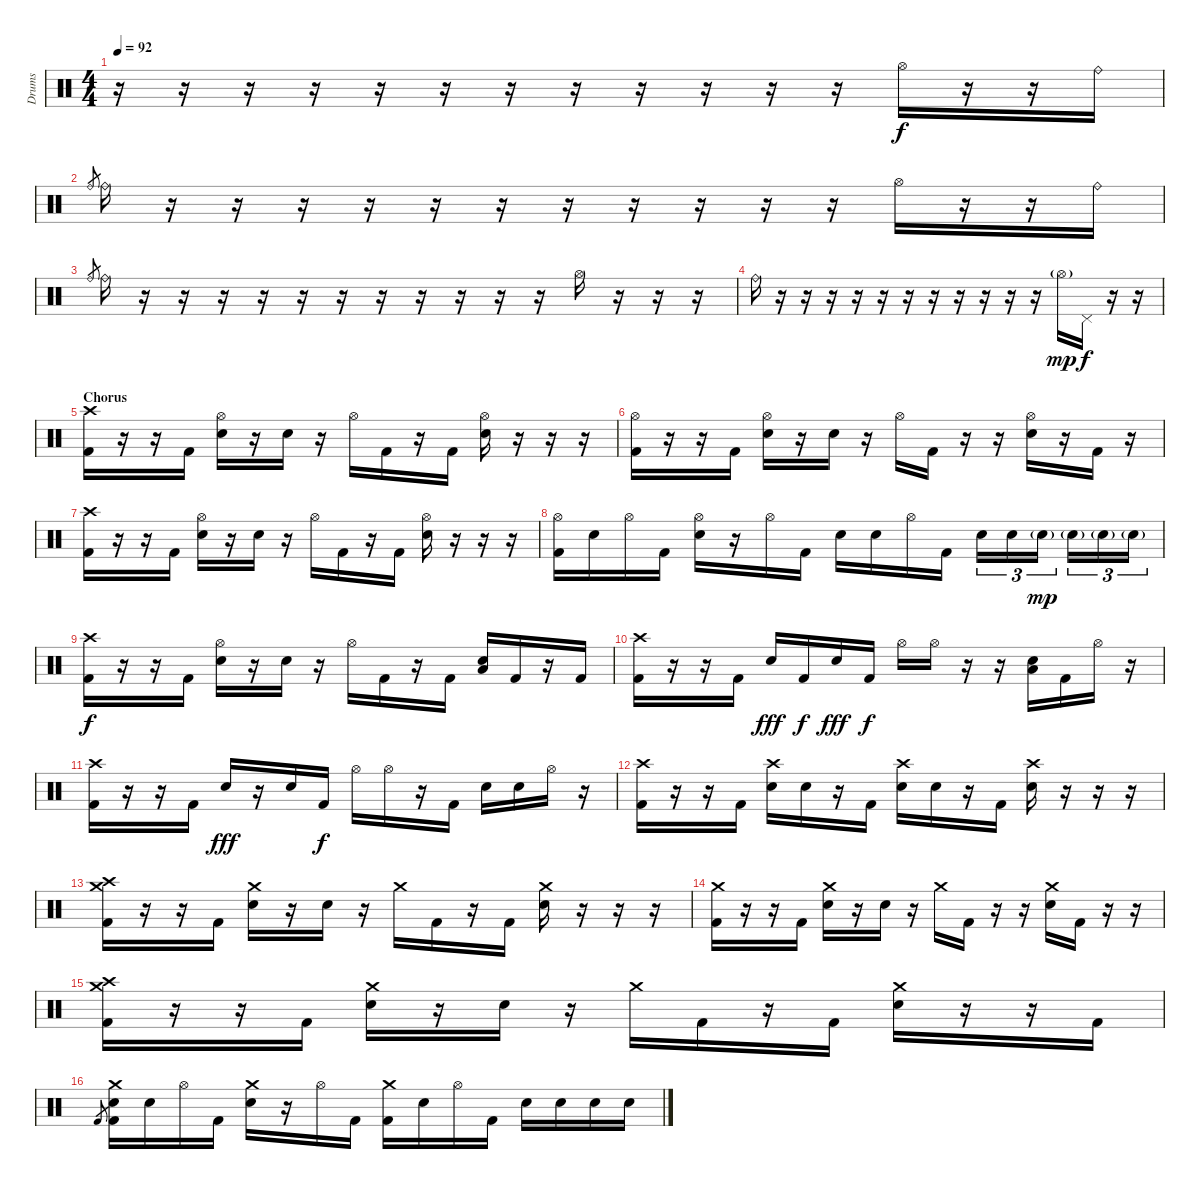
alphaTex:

\track ("Drums" "Drums") {instrument percussion}
\staff {score}
\articulation defaults
\ts (4 4)
\tempo 92
\clef neutral
\ks c
r.16{dy f} r.16 r.16 r.16 r.16 r.16 r.16 r.16 r.16 r.16 r.16 r.16 "Hi-Hat (open)".16 r.16 r.16 "Ride (bell)".16 |
"Ride (bell)".8{gr} "Ride (bell)".16 r.16 r.16 r.16 r.16 r.16 r.16 r.16 r.16 r.16 r.16 r.16 "Hi-Hat (open)".16 r.16 r.16 "Ride (bell)".16 |
"Ride (bell)".8{gr} "Ride (bell)".16 r.16 r.16 r.16 r.16 r.16 r.16 r.16 r.16 r.16 r.16 r.16 "Hi-Hat (open)".16 r.16 r.16 r.16 |
"Ride (bell)".16 r.16 r.16 r.16 r.16 r.16 r.16 r.16 r.16 r.16 r.16 r.16 "Hi-Hat (open)"{g}.16{dy mp} "Pedal Hi-Hat (hit)".16{dy f} r.16 r.16 |
\section ("" "Chorus")
("Kick (hit) 2" "Crash high (hit)").16 r.16 r.16 "Kick (hit) 2".16 ("Hi-Hat (open)" "Electric Snare (hit)").16 r.16 "Electric Snare (hit)".16 r.16 "Hi-Hat (open)".16 "Kick (hit) 2".16 r.16 "Kick (hit) 2".16 ("Hi-Hat (open)" "Electric Snare (hit)").16 r.16 r.16 r.16 |
("Kick (hit) 2" "Hi-Hat (open)").16 r.16 r.16 "Kick (hit) 2".16 ("Hi-Hat (open)" "Electric Snare (hit)").16 r.16 "Electric Snare (hit)".16 r.16 "Hi-Hat (open)".16 "Kick (hit) 2".16 r.16 r.16 ("Hi-Hat (open)" "Electric Snare (hit)").16 r.16 "Kick (hit) 2".16 r.16 |
("Kick (hit) 2" "Crash high (hit)").16 r.16 r.16 "Kick (hit) 2".16 ("Hi-Hat (open)" "Electric Snare (hit)").16 r.16 "Electric Snare (hit)".16 r.16 "Hi-Hat (open)".16 "Kick (hit) 2".16 r.16 "Kick (hit) 2".16 ("Hi-Hat (open)" "Electric Snare (hit)").16 r.16 r.16 r.16 |
("Kick (hit) 2" "Hi-Hat (open)").16 "Electric Snare (hit)".16 "Hi-Hat (open)".16 "Kick (hit) 2".16 ("Hi-Hat (open)" "Electric Snare (hit)").16 r.16 "Hi-Hat (open)".16 "Kick (hit) 2".16 "Electric Snare (hit)".16 "Electric Snare (hit)".16 "Hi-Hat (open)".16 "Kick (hit) 2".16 "Electric Snare (hit)".16{tu (3 2)} "Electric Snare (hit)".16{tu (3 2)} "Electric Snare (hit)"{g}.16{tu (3 2) dy mp} "Electric Snare (hit)"{g}.16{tu (3 2)} "Electric Snare (hit)"{g}.16{tu (3 2)} "Electric Snare (hit)"{g}.16{tu (3 2)} |
("Kick (hit) 2" "Crash high (hit)").16{dy f} r.16 r.16 "Kick (hit) 2".16 ("Hi-Hat (open)" "Electric Snare (hit)").16 r.16 "Electric Snare (hit)".16 r.16 "Hi-Hat (open)".16 "Kick (hit) 2".16 r.16 "Kick (hit) 2".16 ("Electric Snare (hit)" "Low Tom (hit)").16 "Kick (hit) 2".16 r.16 "Kick (hit) 2".16 |
("Kick (hit) 2" "Crash high (hit)").16 r.16 r.16 "Kick (hit) 2".16 "Electric Snare (hit)".16{dy fff} "Kick (hit) 2".16{dy f} "Electric Snare (hit)".16{dy fff} "Kick (hit) 2".16{dy f} "Hi-Hat (open)".16 "Hi-Hat (open)".16 r.16 r.16 ("Electric Snare (hit)" "Low Tom (hit)").16 "Kick (hit) 2".16 "Hi-Hat (open)".16 r.16 |
("Kick (hit) 2" "Crash high (hit)").16 r.16 r.16 "Kick (hit) 2".16 "Electric Snare (hit)".16{dy fff} r.16 "Electric Snare (hit)".16 "Kick (hit) 2".16{dy f} "Hi-Hat (open)".16 "Hi-Hat (open)".16 r.16 "Kick (hit) 2".16 "Electric Snare (hit)".16 "Electric Snare (hit)".16 "Hi-Hat (open)".16 r.16 |
("Kick (hit) 2" "Crash high (hit)").16 r.16 r.16 "Kick (hit) 2".16 ("Crash high (hit)" "Electric Snare (hit)").16 "Electric Snare (hit)".16 r.16 "Kick (hit) 2".16 ("Crash high (hit)" "Electric Snare (hit)").16 "Electric Snare (hit)".16 r.16 "Kick (hit) 2".16 ("Crash high (hit)" "Electric Snare (hit)").16 r.16 r.16 r.16 |
("Kick (hit) 2" "Crash high (hit)" "Crash medium (hit)").16 r.16 r.16 "Kick (hit) 2".16 ("Crash medium (hit)" "Electric Snare (hit)").16 r.16 "Electric Snare (hit)".16 r.16 "Crash medium (hit)".16 "Kick (hit) 2".16 r.16 "Kick (hit) 2".16 ("Crash medium (hit)" "Electric Snare (hit)").16 r.16 r.16 r.16 |
("Kick (hit) 2" "Crash medium (hit)").16 r.16 r.16 "Kick (hit) 2".16 ("Crash medium (hit)" "Electric Snare (hit)").16 r.16 "Electric Snare (hit)".16 r.16 "Crash medium (hit)".16 "Kick (hit) 2".16 r.16 r.16 ("Crash medium (hit)" "Electric Snare (hit)").16 "Kick (hit) 2".16 r.16 r.16 |
("Kick (hit) 2" "Crash high (hit)" "Crash medium (hit)").16 r.16 r.16 "Kick (hit) 2".16 ("Crash medium (hit)" "Electric Snare (hit)").16 r.16 "Electric Snare (hit)".16 r.16 "Crash medium (hit)".16 "Kick (hit) 2".16 r.16 "Kick (hit) 2".16 ("Crash medium (hit)" "Electric Snare (hit)").16 r.16 r.16 "Kick (hit) 2".16 |
"Kick (hit) 2".8{gr} ("Kick (hit) 2" "Crash medium (hit)" "Electric Snare (hit)").16 "Electric Snare (hit)".16 "Hi-Hat (open)".16 "Kick (hit) 2".16 ("Crash medium (hit)" "Electric Snare (hit)").16 r.16 "Hi-Hat (open)".16 "Kick (hit) 2".16 ("Kick (hit) 2" "Crash medium (hit)").16 "Electric Snare (hit)".16 "Hi-Hat (open)".16 "Kick (hit) 2".16 "Electric Snare (hit)".16 "Electric Snare (hit)".16 "Electric Snare (hit)".16 "Electric Snare (hit)".16
